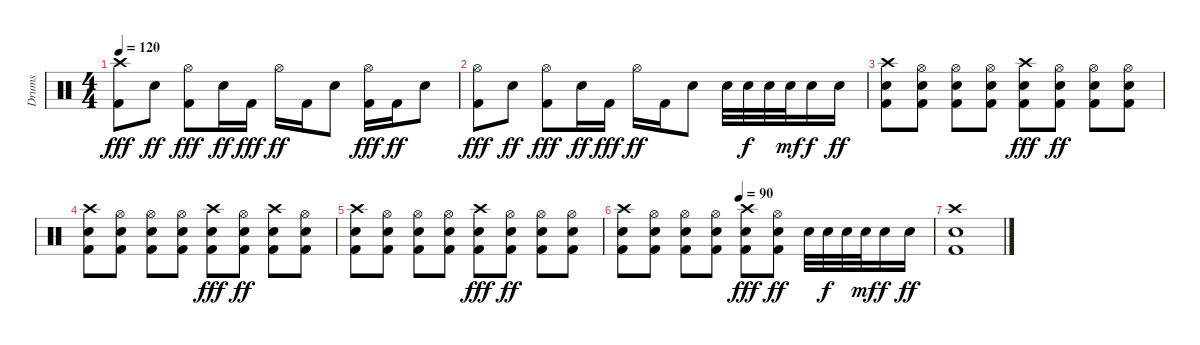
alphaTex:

\track ("Drums" "Drums") {instrument percussion}
\staff {score}
\articulation defaults
\ts (4 4)
\tempo 120
\clef neutral
\ks c
("Crash high (hit)" "Kick (hit) 2").8{dy fff} "Snare (hit) 2".8{dy ff} ("Hi-Hat (open)" "Kick (hit) 2").8{dy fff} "Snare (hit) 2".16{dy ff} "Kick (hit) 2".16{dy fff} "Hi-Hat (open)".16{dy ff} "Kick (hit) 2".16 "Snare (hit) 2".8 ("Hi-Hat (open)" "Kick (hit) 2").16{dy fff} "Kick (hit) 2".16{dy ff} "Snare (hit) 2".8 |
("Hi-Hat (open)" "Kick (hit) 2").8{dy fff} "Snare (hit) 2".8{dy ff} ("Hi-Hat (open)" "Kick (hit) 2").8{dy fff} "Snare (hit) 2".16{dy ff} "Kick (hit) 2".16{dy fff} "Hi-Hat (open)".16{dy ff} "Kick (hit) 2".16 "Snare (hit) 2".8 "Snare (hit) 2".32 "Snare (hit) 2".32{dy f} "Snare (hit) 2".32 "Snare (hit) 2".32{dy mf} "Snare (hit) 2".16{dy f} "Snare (hit) 2".16{dy ff} |
("Crash high (hit)" "Snare (hit) 2" "Kick (hit) 2").8 ("Hi-Hat (open)" "Snare (hit) 2" "Kick (hit) 2").8 ("Hi-Hat (open)" "Snare (hit) 2" "Kick (hit) 2").8 ("Hi-Hat (open)" "Snare (hit) 2" "Kick (hit) 2").8 ("Crash high (hit)" "Snare (hit) 2" "Kick (hit) 2").8{dy fff} ("Hi-Hat (open)" "Snare (hit) 2" "Kick (hit) 2").8{dy ff} ("Hi-Hat (open)" "Snare (hit) 2" "Kick (hit) 2").8 ("Hi-Hat (open)" "Snare (hit) 2" "Kick (hit) 2").8 |
("Crash high (hit)" "Snare (hit) 2" "Kick (hit) 2").8 ("Hi-Hat (open)" "Snare (hit) 2" "Kick (hit) 2").8 ("Hi-Hat (open)" "Snare (hit) 2" "Kick (hit) 2").8 ("Hi-Hat (open)" "Snare (hit) 2" "Kick (hit) 2").8 ("Crash high (hit)" "Snare (hit) 2" "Kick (hit) 2").8{dy fff} ("Hi-Hat (open)" "Snare (hit) 2" "Kick (hit) 2").8{dy ff} ("Crash high (hit)" "Snare (hit) 2" "Kick (hit) 2").8 ("Hi-Hat (open)" "Snare (hit) 2" "Kick (hit) 2").8 |
("Crash high (hit)" "Snare (hit) 2" "Kick (hit) 2").8 ("Hi-Hat (open)" "Snare (hit) 2" "Kick (hit) 2").8 ("Hi-Hat (open)" "Snare (hit) 2" "Kick (hit) 2").8 ("Hi-Hat (open)" "Snare (hit) 2" "Kick (hit) 2").8 ("Crash high (hit)" "Snare (hit) 2" "Kick (hit) 2").8{dy fff} ("Hi-Hat (open)" "Snare (hit) 2" "Kick (hit) 2").8{dy ff} ("Hi-Hat (open)" "Snare (hit) 2" "Kick (hit) 2").8 ("Hi-Hat (open)" "Snare (hit) 2" "Kick (hit) 2").8 |
\tempo (90 0.375)
("Crash high (hit)" "Snare (hit) 2" "Kick (hit) 2").8 ("Hi-Hat (open)" "Snare (hit) 2" "Kick (hit) 2").8 ("Hi-Hat (open)" "Snare (hit) 2" "Kick (hit) 2").8 ("Hi-Hat (open)" "Snare (hit) 2" "Kick (hit) 2").8 ("Crash high (hit)" "Snare (hit) 2" "Kick (hit) 2").8{dy fff} ("Hi-Hat (open)" "Snare (hit) 2" "Kick (hit) 2").8{dy ff} "Snare (hit) 2".32 "Snare (hit) 2".32{dy f} "Snare (hit) 2".32 "Snare (hit) 2".32{dy mf} "Snare (hit) 2".16{dy f} "Snare (hit) 2".16{dy ff} |
("Crash high (hit)" "Snare (hit) 2" "Kick (hit) 2").1
